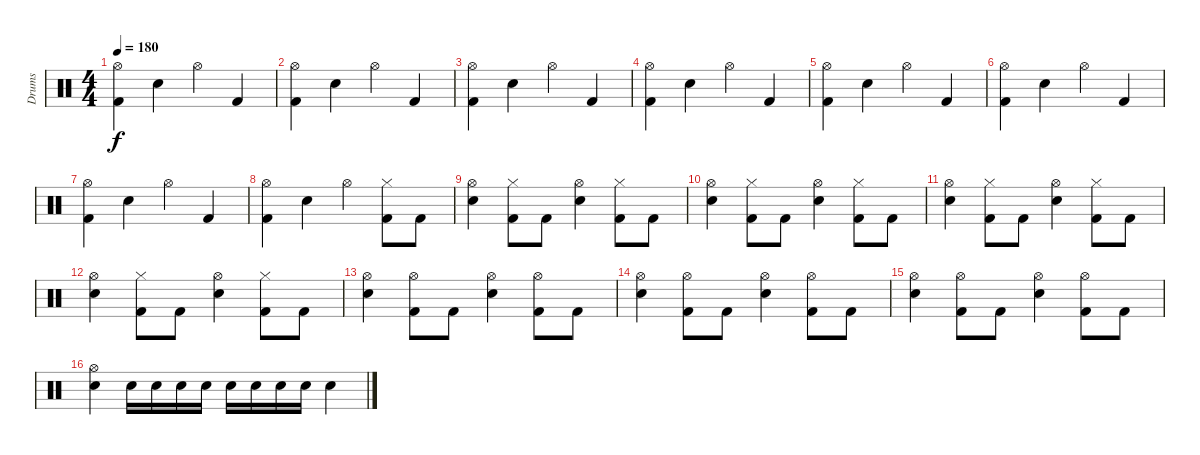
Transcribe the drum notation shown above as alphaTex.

\track ("Drums" "Drums") {instrument percussion}
\staff {score}
\articulation defaults
\ts (4 4)
\tempo 180
\clef neutral
\ks c
("Hi-Hat (open)" "Kick (hit) 2").4{dy f} "Snare (hit) 2".4 "Hi-Hat (open)".4 "Kick (hit) 2".4 |
("Hi-Hat (open)" "Kick (hit) 2").4 "Snare (hit) 2".4 "Hi-Hat (open)".4 "Kick (hit) 2".4 |
("Hi-Hat (open)" "Kick (hit) 2").4 "Snare (hit) 2".4 "Hi-Hat (open)".4 "Kick (hit) 2".4 |
("Hi-Hat (open)" "Kick (hit) 2").4 "Snare (hit) 2".4 "Hi-Hat (open)".4 "Kick (hit) 2".4 |
("Hi-Hat (open)" "Kick (hit) 2").4 "Snare (hit) 2".4 "Hi-Hat (open)".4 "Kick (hit) 2".4 |
("Hi-Hat (open)" "Kick (hit) 2").4 "Snare (hit) 2".4 "Hi-Hat (open)".4 "Kick (hit) 2".4 |
("Hi-Hat (open)" "Kick (hit) 2").4 "Snare (hit) 2".4 "Hi-Hat (open)".4 "Kick (hit) 2".4 |
("Hi-Hat (open)" "Kick (hit) 2").4 "Snare (hit) 2".4 "Hi-Hat (open)".4 ("Hi-Hat (closed)" "Kick (hit) 2").8 "Kick (hit) 2".8 |
("Hi-Hat (open)" "Snare (hit) 2").4 ("Hi-Hat (closed)" "Kick (hit) 2").8 "Kick (hit) 2".8 ("Hi-Hat (open)" "Snare (hit) 2").4 ("Hi-Hat (closed)" "Kick (hit) 2").8 "Kick (hit) 2".8 |
("Hi-Hat (open)" "Snare (hit) 2").4 ("Hi-Hat (closed)" "Kick (hit) 2").8 "Kick (hit) 2".8 ("Hi-Hat (open)" "Snare (hit) 2").4 ("Hi-Hat (closed)" "Kick (hit) 2").8 "Kick (hit) 2".8 |
("Hi-Hat (open)" "Snare (hit) 2").4 ("Hi-Hat (closed)" "Kick (hit) 2").8 "Kick (hit) 2".8 ("Hi-Hat (open)" "Snare (hit) 2").4 ("Hi-Hat (closed)" "Kick (hit) 2").8 "Kick (hit) 2".8 |
("Hi-Hat (open)" "Snare (hit) 2").4 ("Hi-Hat (closed)" "Kick (hit) 2").8 "Kick (hit) 2".8 ("Hi-Hat (open)" "Snare (hit) 2").4 ("Hi-Hat (closed)" "Kick (hit) 2").8 "Kick (hit) 2".8 |
("Hi-Hat (open)" "Snare (hit) 2").4 ("Hi-Hat (open)" "Kick (hit) 2").8 "Kick (hit) 2".8 ("Hi-Hat (open)" "Snare (hit) 2").4 ("Hi-Hat (open)" "Kick (hit) 2").8 "Kick (hit) 2".8 |
("Hi-Hat (open)" "Snare (hit) 2").4 ("Hi-Hat (open)" "Kick (hit) 2").8 "Kick (hit) 2".8 ("Hi-Hat (open)" "Snare (hit) 2").4 ("Hi-Hat (open)" "Kick (hit) 2").8 "Kick (hit) 2".8 |
("Hi-Hat (open)" "Snare (hit) 2").4 ("Hi-Hat (open)" "Kick (hit) 2").8 "Kick (hit) 2".8 ("Hi-Hat (open)" "Snare (hit) 2").4 ("Hi-Hat (open)" "Kick (hit) 2").8 "Kick (hit) 2".8 |
("Hi-Hat (open)" "Snare (hit) 2").4 "Snare (hit) 2".16 "Snare (hit) 2".16 "Snare (hit) 2".16 "Snare (hit) 2".16 "Snare (hit) 2".16 "Snare (hit) 2".16 "Snare (hit) 2".16 "Snare (hit) 2".16 "Snare (hit) 2".4
